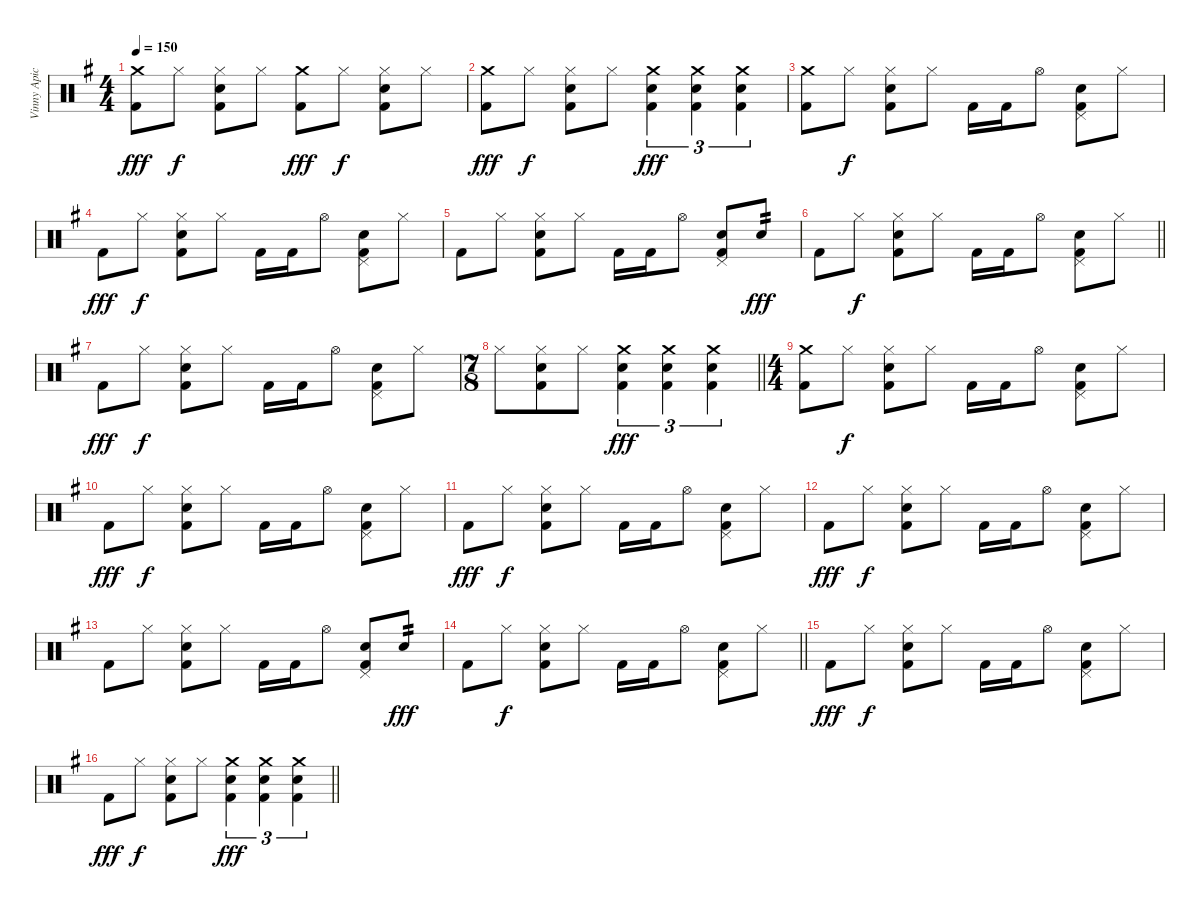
\track ("Vinny Apice" "Vinny Apic") {instrument percussion}
\staff {score}
\articulation defaults
\ts (4 4)
\tempo 150
\clef neutral
\ks g
("Crash medium (hit)" "Kick (hit) 2").8{dy fff} "Hi-Hat (closed)".8{dy f} ("Hi-Hat (closed)" "Snare (hit) 2" "Kick (hit) 2").8 "Hi-Hat (closed)".8 ("Crash medium (hit)" "Kick (hit) 2").8{dy fff} "Hi-Hat (closed)".8{dy f} ("Hi-Hat (closed)" "Snare (hit) 2" "Kick (hit) 2").8 "Hi-Hat (closed)".8 |
("Crash medium (hit)" "Kick (hit) 2").8{dy fff} "Hi-Hat (closed)".8{dy f} ("Hi-Hat (closed)" "Snare (hit) 2" "Kick (hit) 2").8 "Hi-Hat (closed)".8 ("Crash medium (hit)" "Snare (hit) 2" "Kick (hit) 2").4{tu (3 2) dy fff} ("Crash medium (hit)" "Snare (hit) 2" "Kick (hit) 2").4{tu (3 2)} ("Crash medium (hit)" "Snare (hit) 2" "Kick (hit) 2").4{tu (3 2)} |
("Crash medium (hit)" "Kick (hit) 2").8 "Hi-Hat (closed)".8{dy f} ("Hi-Hat (closed)" "Snare (hit) 2" "Kick (hit) 2").8 "Hi-Hat (closed)".8 "Kick (hit) 2".16 "Kick (hit) 2".16 "Hi-Hat (open)".8 ("Pedal Hi-Hat (hit)" "Snare (hit) 2" "Kick (hit) 2").8 "Hi-Hat (closed)".8 |
"Kick (hit) 2".8{dy fff} "Hi-Hat (closed)".8{dy f} ("Hi-Hat (closed)" "Snare (hit) 2" "Kick (hit) 2").8 "Hi-Hat (closed)".8 "Kick (hit) 2".16 "Kick (hit) 2".16 "Hi-Hat (open)".8 ("Pedal Hi-Hat (hit)" "Snare (hit) 2" "Kick (hit) 2").8 "Hi-Hat (closed)".8 |
"Kick (hit) 2".8 "Hi-Hat (closed)".8 ("Hi-Hat (closed)" "Snare (hit) 2" "Kick (hit) 2").8 "Hi-Hat (closed)".8 "Kick (hit) 2".16 "Kick (hit) 2".16 "Hi-Hat (open)".8 ("Pedal Hi-Hat (hit)" "Snare (hit) 2" "Kick (hit) 2").8 "Snare (hit) 2".8{tp 2 dy fff} |
\barLineRight lightlight "Kick (hit) 2".8 "Hi-Hat (closed)".8{dy f}
("Hi-Hat (closed)" "Snare (hit) 2" "Kick (hit) 2").8 "Hi-Hat (closed)".8 "Kick (hit) 2".16 "Kick (hit) 2".16 "Hi-Hat (open)".8 ("Pedal Hi-Hat (hit)" "Snare (hit) 2" "Kick (hit) 2").8 "Hi-Hat (closed)".8 |
"Kick (hit) 2".8{dy fff} "Hi-Hat (closed)".8{dy f} ("Hi-Hat (closed)" "Snare (hit) 2" "Kick (hit) 2").8 "Hi-Hat (closed)".8 "Kick (hit) 2".16 "Kick (hit) 2".16 "Hi-Hat (open)".8 ("Pedal Hi-Hat (hit)" "Snare (hit) 2" "Kick (hit) 2").8 "Hi-Hat (closed)".8 |
\ts (7 8)
\barLineRight lightlight "Hi-Hat (closed)".8
("Hi-Hat (closed)" "Snare (hit) 2" "Kick (hit) 2").8 "Hi-Hat (closed)".8 ("Crash medium (hit)" "Snare (hit) 2" "Kick (hit) 2").4{tu (3 2) dy fff} ("Crash medium (hit)" "Snare (hit) 2" "Kick (hit) 2").4{tu (3 2)} ("Crash medium (hit)" "Snare (hit) 2" "Kick (hit) 2").4{tu (3 2)} |
\ts (4 4)
("Crash medium (hit)" "Kick (hit) 2").8 "Hi-Hat (closed)".8{dy f} ("Hi-Hat (closed)" "Snare (hit) 2" "Kick (hit) 2").8 "Hi-Hat (closed)".8 "Kick (hit) 2".16 "Kick (hit) 2".16 "Hi-Hat (open)".8 ("Pedal Hi-Hat (hit)" "Snare (hit) 2" "Kick (hit) 2").8 "Hi-Hat (closed)".8 |
"Kick (hit) 2".8{dy fff} "Hi-Hat (closed)".8{dy f} ("Hi-Hat (closed)" "Snare (hit) 2" "Kick (hit) 2").8 "Hi-Hat (closed)".8 "Kick (hit) 2".16 "Kick (hit) 2".16 "Hi-Hat (open)".8 ("Pedal Hi-Hat (hit)" "Snare (hit) 2" "Kick (hit) 2").8 "Hi-Hat (closed)".8 |
"Kick (hit) 2".8{dy fff} "Hi-Hat (closed)".8{dy f} ("Hi-Hat (closed)" "Snare (hit) 2" "Kick (hit) 2").8 "Hi-Hat (closed)".8 "Kick (hit) 2".16 "Kick (hit) 2".16 "Hi-Hat (open)".8 ("Pedal Hi-Hat (hit)" "Snare (hit) 2" "Kick (hit) 2").8 "Hi-Hat (closed)".8 |
"Kick (hit) 2".8{dy fff} "Hi-Hat (closed)".8{dy f} ("Hi-Hat (closed)" "Snare (hit) 2" "Kick (hit) 2").8 "Hi-Hat (closed)".8 "Kick (hit) 2".16 "Kick (hit) 2".16 "Hi-Hat (open)".8 ("Pedal Hi-Hat (hit)" "Snare (hit) 2" "Kick (hit) 2").8 "Hi-Hat (closed)".8 |
"Kick (hit) 2".8 "Hi-Hat (closed)".8 ("Hi-Hat (closed)" "Snare (hit) 2" "Kick (hit) 2").8 "Hi-Hat (closed)".8 "Kick (hit) 2".16 "Kick (hit) 2".16 "Hi-Hat (open)".8 ("Pedal Hi-Hat (hit)" "Snare (hit) 2" "Kick (hit) 2").8 "Snare (hit) 2".8{tp 2 dy fff} |
\barLineRight lightlight "Kick (hit) 2".8 "Hi-Hat (closed)".8{dy f}
("Hi-Hat (closed)" "Snare (hit) 2" "Kick (hit) 2").8 "Hi-Hat (closed)".8 "Kick (hit) 2".16 "Kick (hit) 2".16 "Hi-Hat (open)".8 ("Pedal Hi-Hat (hit)" "Snare (hit) 2" "Kick (hit) 2").8 "Hi-Hat (closed)".8 |
"Kick (hit) 2".8{dy fff} "Hi-Hat (closed)".8{dy f} ("Hi-Hat (closed)" "Snare (hit) 2" "Kick (hit) 2").8 "Hi-Hat (closed)".8 "Kick (hit) 2".16 "Kick (hit) 2".16 "Hi-Hat (open)".8 ("Pedal Hi-Hat (hit)" "Snare (hit) 2" "Kick (hit) 2").8 "Hi-Hat (closed)".8 |
\barLineRight lightlight "Kick (hit) 2".8{dy fff} "Hi-Hat (closed)".8{dy f}
("Hi-Hat (closed)" "Snare (hit) 2" "Kick (hit) 2").8 "Hi-Hat (closed)".8 ("Crash medium (hit)" "Snare (hit) 2" "Kick (hit) 2").4{tu (3 2) dy fff} ("Crash medium (hit)" "Snare (hit) 2" "Kick (hit) 2").4{tu (3 2)} ("Crash medium (hit)" "Snare (hit) 2" "Kick (hit) 2").4{tu (3 2)}
